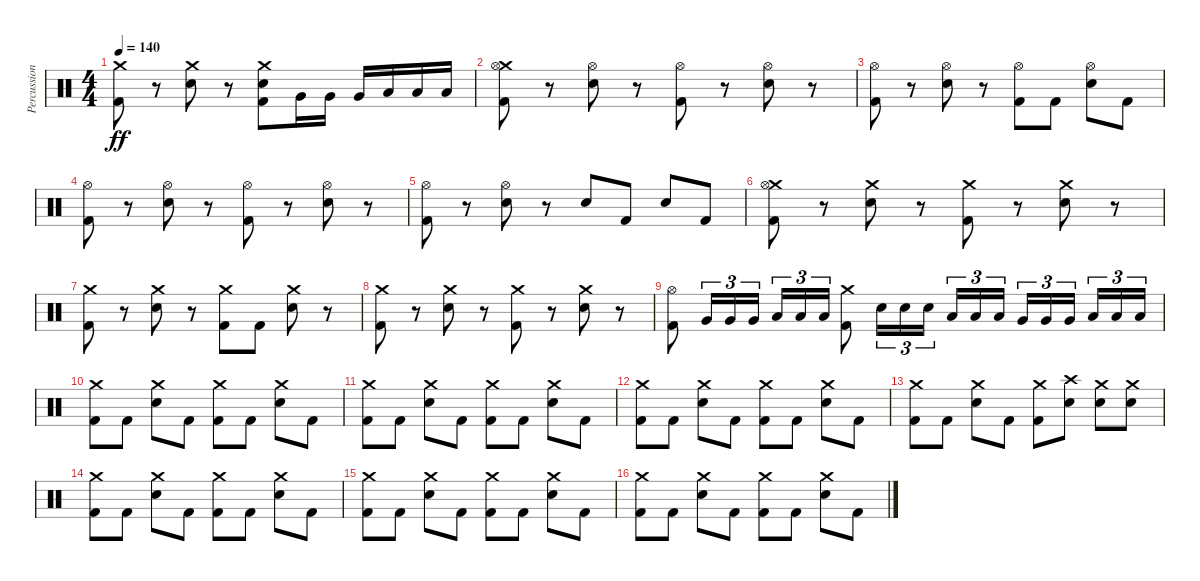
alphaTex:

\track ("Percussion" "Percussion") {instrument percussion}
\staff {score}
\articulation defaults
\ts (4 4)
\tempo 140
\clef neutral
\ks c
("Crash medium (hit)" "Kick (hit) 2").8{dy ff} r.8 ("Crash medium (hit)" "Electric Snare (hit)").8 r.8 ("Crash medium (hit)" "Electric Snare (hit)" "Kick (hit) 2").8 "Very Low Tom (hit)".16 "Very Low Tom (hit)".16 "Very Low Tom (hit)".16 "Low Floor Tom (hit)".16 "Low Floor Tom (hit)".16 "Low Floor Tom (hit)".16 |
("Crash medium (hit)" "Hi-Hat (open)" "Kick (hit) 2").8 r.8 ("Hi-Hat (open)" "Electric Snare (hit)").8 r.8 ("Hi-Hat (open)" "Kick (hit) 2").8 r.8 ("Hi-Hat (open)" "Electric Snare (hit)").8 r.8 |
("Hi-Hat (open)" "Kick (hit) 2").8 r.8 ("Hi-Hat (open)" "Electric Snare (hit)").8 r.8 ("Hi-Hat (open)" "Kick (hit) 2").8 "Kick (hit) 2".8 ("Hi-Hat (open)" "Electric Snare (hit)").8 "Kick (hit) 2".8 |
("Hi-Hat (open)" "Kick (hit) 2").8 r.8 ("Hi-Hat (open)" "Electric Snare (hit)").8 r.8 ("Hi-Hat (open)" "Kick (hit) 2").8 r.8 ("Hi-Hat (open)" "Electric Snare (hit)").8 r.8 |
("Hi-Hat (open)" "Kick (hit) 2").8 r.8 ("Hi-Hat (open)" "Electric Snare (hit)").8 r.8 "Electric Snare (hit)".8 "Kick (hit) 2".8 "Electric Snare (hit)".8 "Kick (hit) 2".8 |
("Crash medium (hit)" "Hi-Hat (open)" "Kick (hit) 2").8 r.8 ("Crash medium (hit)" "Electric Snare (hit)").8 r.8 ("Crash medium (hit)" "Kick (hit) 2").8 r.8 ("Crash medium (hit)" "Electric Snare (hit)").8 r.8 |
("Crash medium (hit)" "Kick (hit) 2").8 r.8 ("Crash medium (hit)" "Electric Snare (hit)").8 r.8 ("Crash medium (hit)" "Kick (hit) 2").8 "Kick (hit) 2".8 ("Crash medium (hit)" "Electric Snare (hit)").8 r.8 |
("Crash medium (hit)" "Kick (hit) 2").8 r.8 ("Crash medium (hit)" "Electric Snare (hit)").8 r.8 ("Crash medium (hit)" "Kick (hit) 2").8 r.8 ("Crash medium (hit)" "Electric Snare (hit)").8 r.8 |
("Hi-Hat (open)" "Kick (hit) 2").8 "Very Low Tom (hit)".16{tu (3 2)} "Very Low Tom (hit)".16{tu (3 2)} "Very Low Tom (hit)".16{tu (3 2)} "Low Floor Tom (hit)".16{tu (3 2)} "Low Floor Tom (hit)".16{tu (3 2)} "Low Floor Tom (hit)".16{tu (3 2)} ("Crash medium (hit)" "Kick (hit) 2").8 "Electric Snare (hit)".16{tu (3 2)} "Electric Snare (hit)".16{tu (3 2)} "Electric Snare (hit)".16{tu (3 2) beam splitsecondary} "Low Tom (hit)".16{tu (3 2)} "Low Tom (hit)".16{tu (3 2)} "Low Tom (hit)".16{tu (3 2)} "Very Low Tom (hit)".16{tu (3 2)} "Very Low Tom (hit)".16{tu (3 2)} "Very Low Tom (hit)".16{tu (3 2) beam splitsecondary} "Low Floor Tom (hit)".16{tu (3 2)} "Low Floor Tom (hit)".16{tu (3 2)} "Low Floor Tom (hit)".16{tu (3 2)} |
("Crash medium (hit)" "Kick (hit) 2").8 "Kick (hit) 2".8 ("Crash medium (hit)" "Electric Snare (hit)").8 "Kick (hit) 2".8 ("Crash medium (hit)" "Kick (hit) 2").8 "Kick (hit) 2".8 ("Crash medium (hit)" "Electric Snare (hit)").8 "Kick (hit) 2".8 |
("Crash medium (hit)" "Kick (hit) 2").8 "Kick (hit) 2".8 ("Crash medium (hit)" "Electric Snare (hit)").8 "Kick (hit) 2".8 ("Crash medium (hit)" "Kick (hit) 2").8 "Kick (hit) 2".8 ("Crash medium (hit)" "Electric Snare (hit)").8 "Kick (hit) 2".8 |
("Crash medium (hit)" "Kick (hit) 2").8 "Kick (hit) 2".8 ("Crash medium (hit)" "Electric Snare (hit)").8 "Kick (hit) 2".8 ("Crash medium (hit)" "Kick (hit) 2").8 "Kick (hit) 2".8 ("Crash medium (hit)" "Electric Snare (hit)").8 "Kick (hit) 2".8 |
("Crash medium (hit)" "Kick (hit) 2").8 "Kick (hit) 2".8 ("Crash medium (hit)" "Electric Snare (hit)").8 "Kick (hit) 2".8 ("Crash medium (hit)" "Kick (hit) 2").8 ("Crash high (hit)" "Electric Snare (hit)").8 ("Crash medium (hit)" "Electric Snare (hit)").8 ("Crash medium (hit)" "Electric Snare (hit)").8 |
("Crash medium (hit)" "Kick (hit) 2").8 "Kick (hit) 2".8 ("Crash medium (hit)" "Electric Snare (hit)").8 "Kick (hit) 2".8 ("Crash medium (hit)" "Kick (hit) 2").8 "Kick (hit) 2".8 ("Crash medium (hit)" "Electric Snare (hit)").8 "Kick (hit) 2".8 |
("Crash medium (hit)" "Kick (hit) 2").8 "Kick (hit) 2".8 ("Crash medium (hit)" "Electric Snare (hit)").8 "Kick (hit) 2".8 ("Crash medium (hit)" "Kick (hit) 2").8 "Kick (hit) 2".8 ("Crash medium (hit)" "Electric Snare (hit)").8 "Kick (hit) 2".8 |
("Crash medium (hit)" "Kick (hit) 2").8 "Kick (hit) 2".8 ("Crash medium (hit)" "Electric Snare (hit)").8 "Kick (hit) 2".8 ("Crash medium (hit)" "Kick (hit) 2").8 "Kick (hit) 2".8 ("Crash medium (hit)" "Electric Snare (hit)").8 "Kick (hit) 2".8
